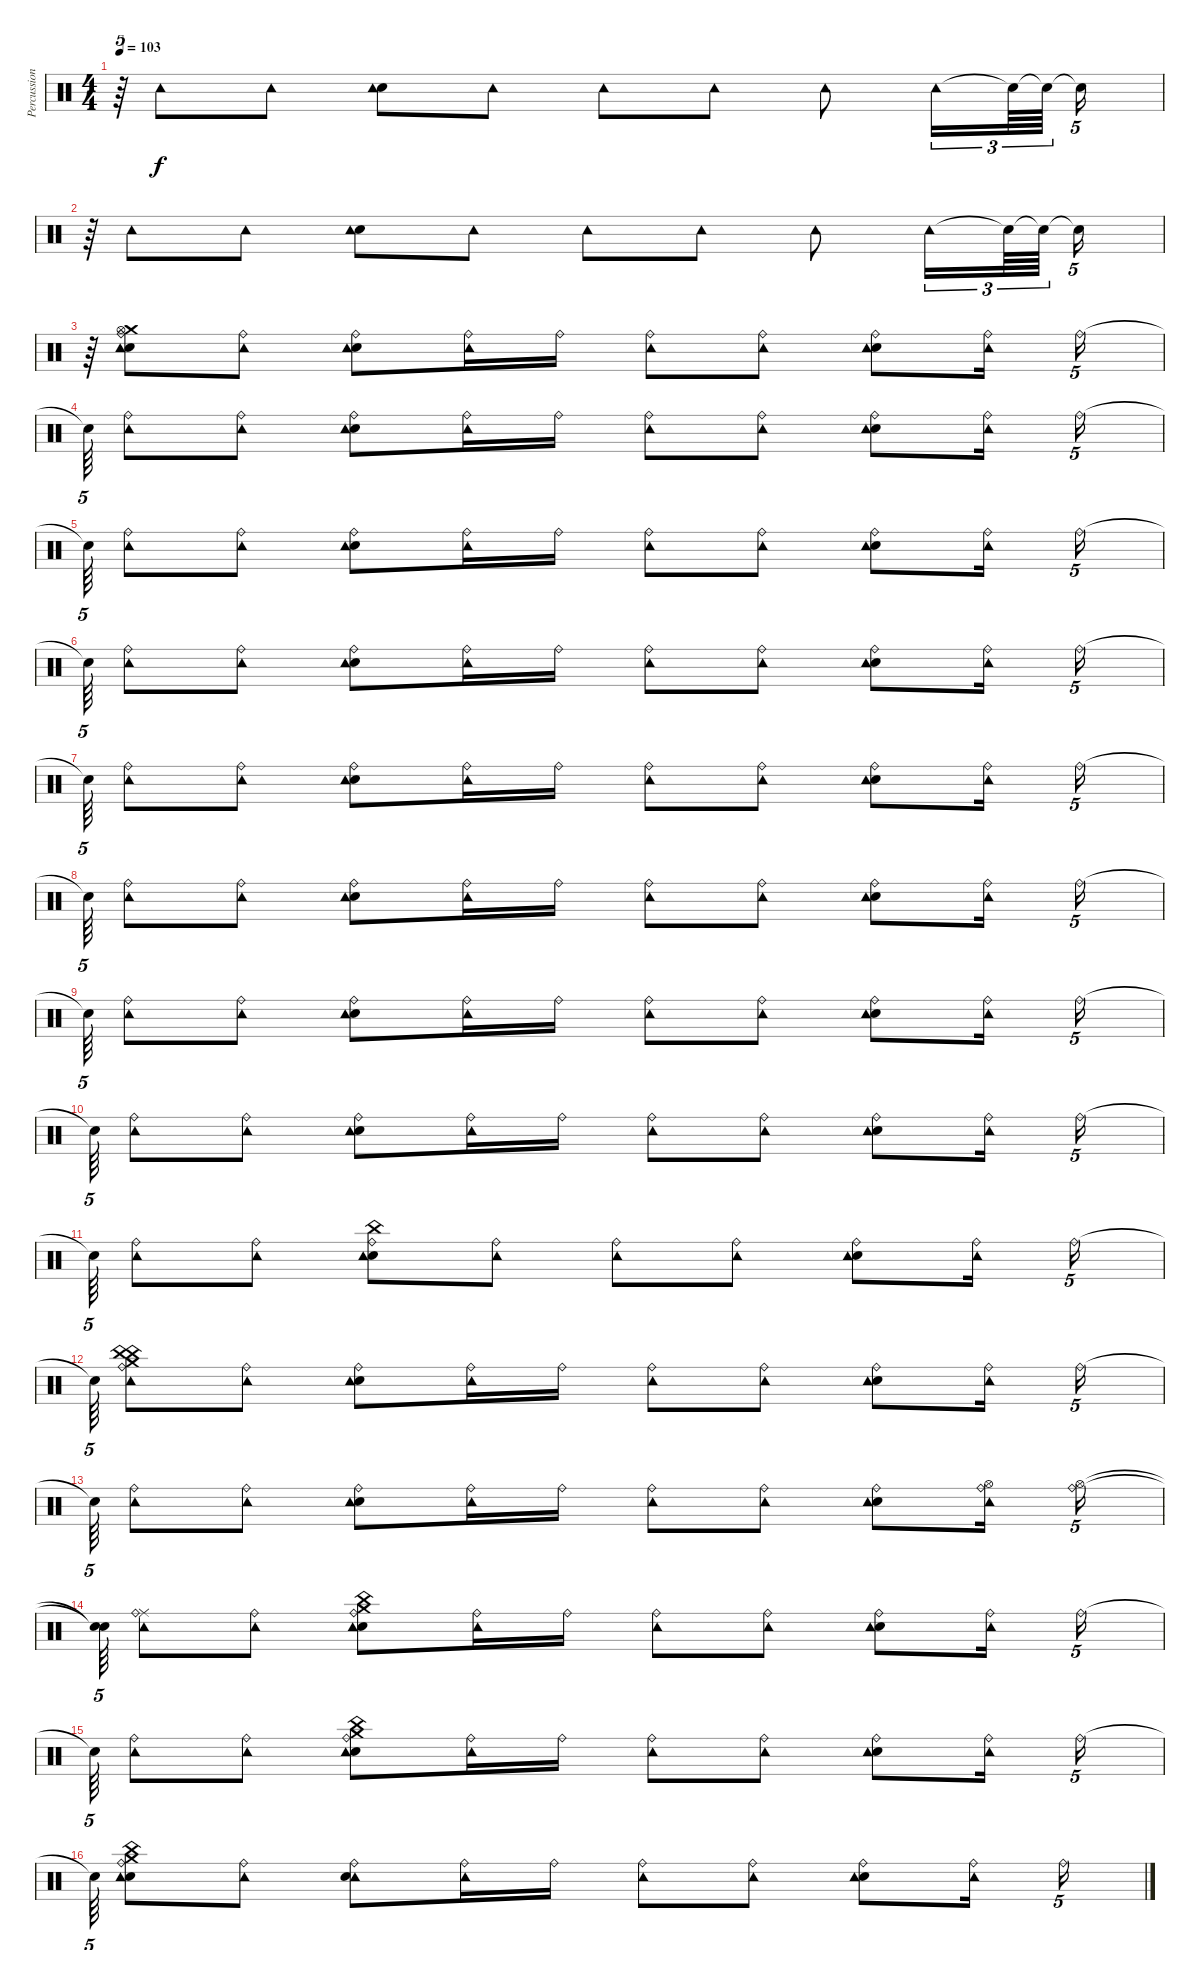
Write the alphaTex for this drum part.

\track ("Percussion" "Percussion") {instrument percussion}
\staff {score}
\articulation defaults
\ts (4 4)
\tempo 103
\clef neutral
\ks c
r.64{tu (5 4) dy f} "Tambourine (hit)".8 "Tambourine (hit)".8 ("Electric Snare (hit)" "Tambourine (hit)").8 "Tambourine (hit)".8 "Tambourine (hit)".8 "Tambourine (hit)".8 "Tambourine (hit)".8 "Tambourine (hit)".16{tu (3 2)} "Snare (hit)"{t}.64{tu (3 2)} "Snare (hit)"{t}.64{tu (3 2)} "Snare (hit)"{t}.16{tu (5 4)} |
r.64{tu (5 4)} "Tambourine (hit)".8 "Tambourine (hit)".8 ("Electric Snare (hit)" "Tambourine (hit)").8 "Tambourine (hit)".8 "Tambourine (hit)".8 "Tambourine (hit)".8 "Tambourine (hit)".8 "Tambourine (hit)".16{tu (3 2)} "Snare (hit)"{t}.64{tu (3 2)} "Snare (hit)"{t}.64{tu (3 2)} "Snare (hit)"{t}.16{tu (5 4)} |
r.64{tu (5 4)} ("Crash medium (hit)" "Hi-Hat (open)" "Snare (hit) 2" "Ride (bell)" "Tambourine (hit)").8 ("Ride (bell)" "Tambourine (hit)").8 ("Snare (hit) 2" "Ride (bell)" "Tambourine (hit)").8 ("Ride (bell)" "Tambourine (hit)").16 "Ride (bell)".16 ("Ride (bell)" "Tambourine (hit)").8 ("Ride (bell)" "Tambourine (hit)").8 ("Snare (hit) 2" "Ride (bell)" "Tambourine (hit)").8 ("Ride (bell)" "Tambourine (hit)").16 "Ride (bell)".16{tu (5 4)} |
"Snare (hit)"{t}.64{tu (5 4)} ("Ride (bell)" "Tambourine (hit)").8 ("Ride (bell)" "Tambourine (hit)").8 ("Snare (hit) 2" "Ride (bell)" "Tambourine (hit)").8 ("Ride (bell)" "Tambourine (hit)").16 "Ride (bell)".16 ("Ride (bell)" "Tambourine (hit)").8 ("Ride (bell)" "Tambourine (hit)").8 ("Snare (hit) 2" "Ride (bell)" "Tambourine (hit)").8 ("Ride (bell)" "Tambourine (hit)").16 "Ride (bell)".16{tu (5 4)} |
"Snare (hit)"{t}.64{tu (5 4)} ("Ride (bell)" "Tambourine (hit)").8 ("Ride (bell)" "Tambourine (hit)").8 ("Snare (hit) 2" "Ride (bell)" "Tambourine (hit)").8 ("Ride (bell)" "Tambourine (hit)").16 "Ride (bell)".16 ("Ride (bell)" "Tambourine (hit)").8 ("Ride (bell)" "Tambourine (hit)").8 ("Snare (hit) 2" "Ride (bell)" "Tambourine (hit)").8 ("Ride (bell)" "Tambourine (hit)").16 "Ride (bell)".16{tu (5 4)} |
"Snare (hit)"{t}.64{tu (5 4)} ("Ride (bell)" "Tambourine (hit)").8 ("Ride (bell)" "Tambourine (hit)").8 ("Snare (hit) 2" "Ride (bell)" "Tambourine (hit)").8 ("Ride (bell)" "Tambourine (hit)").16 "Ride (bell)".16 ("Ride (bell)" "Tambourine (hit)").8 ("Ride (bell)" "Tambourine (hit)").8 ("Snare (hit) 2" "Ride (bell)" "Tambourine (hit)").8 ("Ride (bell)" "Tambourine (hit)").16 "Ride (bell)".16{tu (5 4)} |
"Snare (hit)"{t}.64{tu (5 4)} ("Ride (bell)" "Tambourine (hit)").8 ("Ride (bell)" "Tambourine (hit)").8 ("Snare (hit) 2" "Ride (bell)" "Tambourine (hit)").8 ("Ride (bell)" "Tambourine (hit)").16 "Ride (bell)".16 ("Ride (bell)" "Tambourine (hit)").8 ("Ride (bell)" "Tambourine (hit)").8 ("Snare (hit) 2" "Ride (bell)" "Tambourine (hit)").8 ("Ride (bell)" "Tambourine (hit)").16 "Ride (bell)".16{tu (5 4)} |
"Snare (hit)"{t}.64{tu (5 4)} ("Ride (bell)" "Tambourine (hit)").8 ("Ride (bell)" "Tambourine (hit)").8 ("Snare (hit) 2" "Ride (bell)" "Tambourine (hit)").8 ("Ride (bell)" "Tambourine (hit)").16 "Ride (bell)".16 ("Ride (bell)" "Tambourine (hit)").8 ("Ride (bell)" "Tambourine (hit)").8 ("Snare (hit) 2" "Ride (bell)" "Tambourine (hit)").8 ("Ride (bell)" "Tambourine (hit)").16 "Ride (bell)".16{tu (5 4)} |
"Snare (hit)"{t}.64{tu (5 4)} ("Ride (bell)" "Tambourine (hit)").8 ("Ride (bell)" "Tambourine (hit)").8 ("Snare (hit) 2" "Ride (bell)" "Tambourine (hit)").8 ("Ride (bell)" "Tambourine (hit)").16 "Ride (bell)".16 ("Ride (bell)" "Tambourine (hit)").8 ("Ride (bell)" "Tambourine (hit)").8 ("Snare (hit) 2" "Ride (bell)" "Tambourine (hit)").8 ("Ride (bell)" "Tambourine (hit)").16 "Ride (bell)".16{tu (5 4)} |
"Snare (hit)"{t}.64{tu (5 4)} ("Ride (bell)" "Tambourine (hit)").8 ("Ride (bell)" "Tambourine (hit)").8 ("Snare (hit) 2" "Ride (bell)" "Tambourine (hit)").8 ("Ride (bell)" "Tambourine (hit)").16 "Ride (bell)".16 ("Ride (bell)" "Tambourine (hit)").8 ("Ride (bell)" "Tambourine (hit)").8 ("Snare (hit) 2" "Ride (bell)" "Tambourine (hit)").8 ("Ride (bell)" "Tambourine (hit)").16 "Ride (bell)".16{tu (5 4)} |
"Snare (hit)"{t}.64{tu (5 4)} ("Ride (bell)" "Tambourine (hit)").8 ("Ride (bell)" "Tambourine (hit)").8 ("Snare (hit) 2" "China (hit)" "Ride (bell)" "Tambourine (hit)").8 ("Ride (bell)" "Tambourine (hit)").8 ("Ride (bell)" "Tambourine (hit)").8 ("Ride (bell)" "Tambourine (hit)").8 ("Snare (hit) 2" "Ride (bell)" "Tambourine (hit)").8 ("Ride (bell)" "Tambourine (hit)").16 "Ride (bell)".16{tu (5 4)} |
"Snare (hit)"{t}.64{tu (5 4)} ("China (hit)" "Crash medium (hit)" "China (hit)" "Ride (bell)" "Tambourine (hit)").8 ("Ride (bell)" "Tambourine (hit)").8 ("Snare (hit) 2" "Ride (bell)" "Tambourine (hit)").8 ("Ride (bell)" "Tambourine (hit)").16 "Ride (bell)".16 ("Ride (bell)" "Tambourine (hit)").8 ("Ride (bell)" "Tambourine (hit)").8 ("Snare (hit) 2" "Ride (bell)" "Tambourine (hit)").8 ("Ride (bell)" "Tambourine (hit)").16 "Ride (bell)".16{tu (5 4)} |
"Snare (hit)"{t}.64{tu (5 4)} ("Ride (bell)" "Tambourine (hit)").8 ("Ride (bell)" "Tambourine (hit)").8 ("Snare (hit) 2" "Ride (bell)" "Tambourine (hit)").8 ("Ride (bell)" "Tambourine (hit)").16 "Ride (bell)".16 ("Ride (bell)" "Tambourine (hit)").8 ("Ride (bell)" "Tambourine (hit)").8 ("Snare (hit) 2" "Ride (bell)" "Tambourine (hit)").8 ("Hi-Hat (open)" "Ride (bell)" "Tambourine (hit)").16 ("Hi-Hat (open)" "Ride (bell)").16{tu (5 4)} |
("Snare (hit)"{t} "Snare (hit)"{t}).64{tu (5 4)} ("Ride (middle)" "Ride (bell)" "Tambourine (hit)").8 ("Ride (bell)" "Tambourine (hit)").8 ("Snare (hit) 2" "Crash medium (hit)" "China (hit)" "Ride (bell)" "Tambourine (hit)").8 ("Ride (bell)" "Tambourine (hit)").16 "Ride (bell)".16 ("Ride (bell)" "Tambourine (hit)").8 ("Ride (bell)" "Tambourine (hit)").8 ("Ride (bell)" "Snare (hit) 2" "Tambourine (hit)").8 ("Ride (bell)" "Tambourine (hit)").16 "Ride (bell)".16{tu (5 4)} |
"Snare (hit)"{t}.64{tu (5 4)} ("Ride (bell)" "Tambourine (hit)").8 ("Ride (bell)" "Tambourine (hit)").8 ("Snare (hit) 2" "Crash medium (hit)" "China (hit)" "Ride (bell)" "Tambourine (hit)").8 ("Ride (bell)" "Tambourine (hit)").16 "Ride (bell)".16 ("Ride (bell)" "Tambourine (hit)").8 ("Ride (bell)" "Tambourine (hit)").8 ("Ride (bell)" "Snare (hit) 2" "Tambourine (hit)").8 ("Ride (bell)" "Tambourine (hit)").16 "Ride (bell)".16{tu (5 4)} |
"Snare (hit)"{t}.64{tu (5 4)} ("Snare (hit) 2" "Crash medium (hit)" "China (hit)" "Ride (bell)" "Tambourine (hit)").8 ("Ride (bell)" "Tambourine (hit)").8 ("Ride (bell)" "Tambourine (hit)" "Snare (hit) 2").8 ("Ride (bell)" "Tambourine (hit)").16 "Ride (bell)".16 ("Ride (bell)" "Tambourine (hit)").8 ("Ride (bell)" "Tambourine (hit)").8 ("Ride (bell)" "Snare (hit) 2" "Tambourine (hit)").8 ("Ride (bell)" "Tambourine (hit)").16 "Ride (bell)".16{tu (5 4)}
